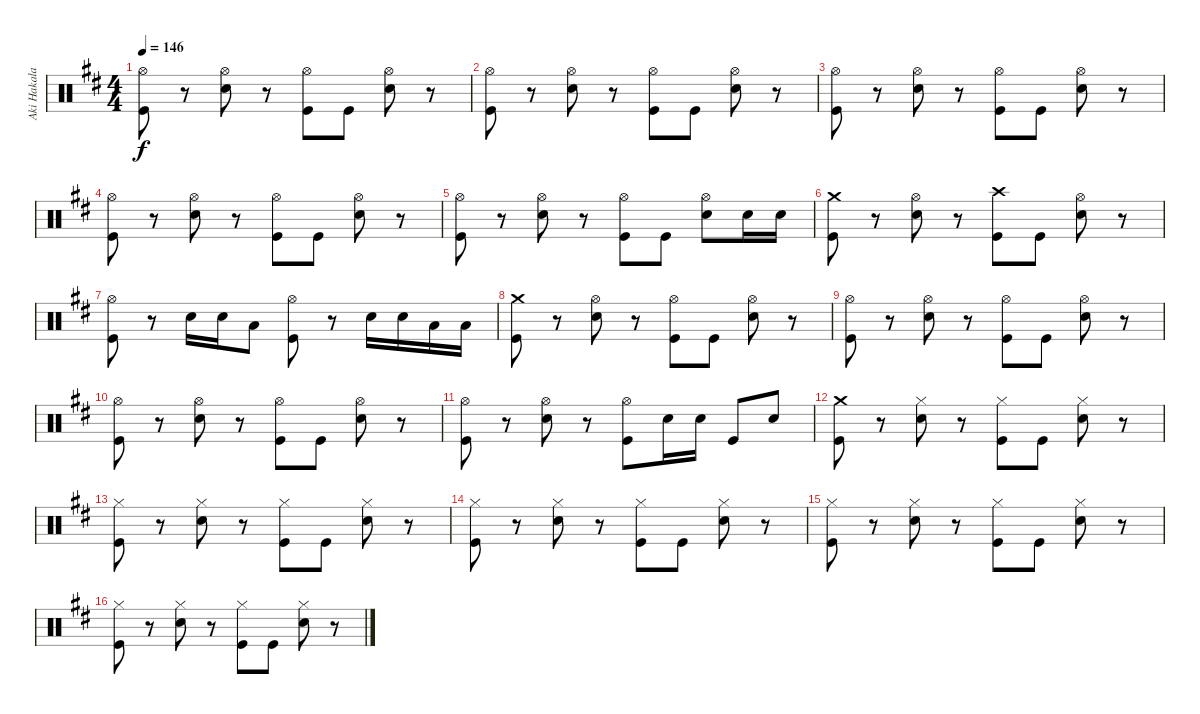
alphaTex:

\track ("Aki Hakala" "Aki Hakala") {instrument percussion}
\staff {score}
\articulation defaults
\ts (4 4)
\tempo 146
\clef neutral
\ks d
("Hi-Hat (open)" "Kick (hit)").8{dy f} r.8 ("Hi-Hat (open)" "Electric Snare (hit)").8 r.8 ("Hi-Hat (open)" "Kick (hit)").8 "Kick (hit)".8 ("Hi-Hat (open)" "Electric Snare (hit)").8 r.8 |
("Hi-Hat (open)" "Kick (hit)").8 r.8 ("Hi-Hat (open)" "Electric Snare (hit)").8 r.8 ("Hi-Hat (open)" "Kick (hit)").8 "Kick (hit)".8 ("Hi-Hat (open)" "Electric Snare (hit)").8 r.8 |
("Hi-Hat (open)" "Kick (hit)").8 r.8 ("Hi-Hat (open)" "Electric Snare (hit)").8 r.8 ("Hi-Hat (open)" "Kick (hit)").8 "Kick (hit)".8 ("Hi-Hat (open)" "Electric Snare (hit)").8 r.8 |
("Hi-Hat (open)" "Kick (hit)").8 r.8 ("Hi-Hat (open)" "Electric Snare (hit)").8 r.8 ("Hi-Hat (open)" "Kick (hit)").8 "Kick (hit)".8 ("Hi-Hat (open)" "Electric Snare (hit)").8 r.8 |
("Hi-Hat (open)" "Kick (hit)").8 r.8 ("Hi-Hat (open)" "Electric Snare (hit)").8 r.8 ("Hi-Hat (open)" "Kick (hit)").8 "Kick (hit)".8 ("Hi-Hat (open)" "Electric Snare (hit)").8 "Electric Snare (hit)".16 "Electric Snare (hit)".16 |
("Crash medium (hit)" "Kick (hit)").8 r.8 ("Hi-Hat (open)" "Electric Snare (hit)").8 r.8 ("Crash high (hit)" "Kick (hit)").8 "Kick (hit)".8 ("Hi-Hat (open)" "Electric Snare (hit)").8 r.8 |
("Hi-Hat (open)" "Kick (hit)").8 r.8 "Electric Snare (hit)".16 "Electric Snare (hit)".16 "Low Tom (hit)".8 ("Hi-Hat (open)" "Kick (hit)").8 r.8 "Electric Snare (hit)".16 "Electric Snare (hit)".16 "Low Tom (hit)".16 "Low Tom (hit)".16 |
("Crash medium (hit)" "Kick (hit)").8 r.8 ("Hi-Hat (open)" "Electric Snare (hit)").8 r.8 ("Hi-Hat (open)" "Kick (hit)").8 "Kick (hit)".8 ("Hi-Hat (open)" "Electric Snare (hit)").8 r.8 |
("Hi-Hat (open)" "Kick (hit)").8 r.8 ("Hi-Hat (open)" "Electric Snare (hit)").8 r.8 ("Hi-Hat (open)" "Kick (hit)").8 "Kick (hit)".8 ("Hi-Hat (open)" "Electric Snare (hit)").8 r.8 |
("Hi-Hat (open)" "Kick (hit)").8 r.8 ("Hi-Hat (open)" "Electric Snare (hit)").8 r.8 ("Hi-Hat (open)" "Kick (hit)").8 "Kick (hit)".8 ("Hi-Hat (open)" "Electric Snare (hit)").8 r.8 |
("Hi-Hat (open)" "Kick (hit)").8 r.8 ("Hi-Hat (open)" "Electric Snare (hit)").8 r.8 ("Hi-Hat (open)" "Kick (hit)").8 "Electric Snare (hit)".16 "Electric Snare (hit)".16 "Kick (hit)".8 "Electric Snare (hit)".8 |
("Crash medium (hit)" "Kick (hit)").8 r.8 ("Hi-Hat (closed)" "Electric Snare (hit)").8 r.8 ("Hi-Hat (closed)" "Kick (hit)").8 "Kick (hit)".8 ("Hi-Hat (closed)" "Electric Snare (hit)").8 r.8 |
("Hi-Hat (closed)" "Kick (hit)").8 r.8 ("Hi-Hat (closed)" "Electric Snare (hit)").8 r.8 ("Hi-Hat (closed)" "Kick (hit)").8 "Kick (hit)".8 ("Hi-Hat (closed)" "Electric Snare (hit)").8 r.8 |
("Hi-Hat (closed)" "Kick (hit)").8 r.8 ("Hi-Hat (closed)" "Electric Snare (hit)").8 r.8 ("Hi-Hat (closed)" "Kick (hit)").8 "Kick (hit)".8 ("Hi-Hat (closed)" "Electric Snare (hit)").8 r.8 |
("Hi-Hat (closed)" "Kick (hit)").8 r.8 ("Hi-Hat (closed)" "Electric Snare (hit)").8 r.8 ("Hi-Hat (closed)" "Kick (hit)").8 "Kick (hit)".8 ("Hi-Hat (closed)" "Electric Snare (hit)").8 r.8 |
("Hi-Hat (closed)" "Kick (hit)").8 r.8 ("Hi-Hat (closed)" "Electric Snare (hit)").8 r.8 ("Hi-Hat (closed)" "Kick (hit)").8 "Kick (hit)".8 ("Hi-Hat (closed)" "Electric Snare (hit)").8 r.8
